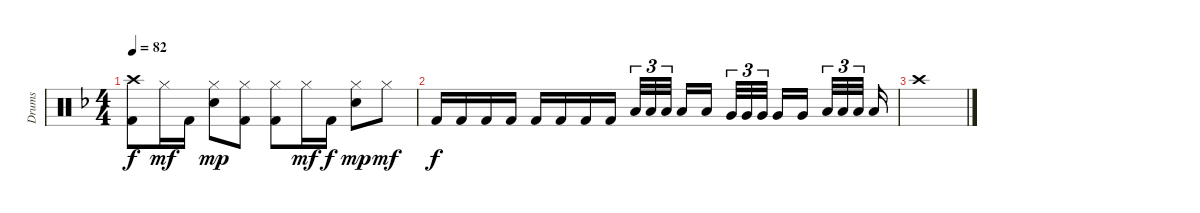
\track ("Drums" "Drums") {instrument percussion}
\staff {score}
\articulation defaults
\ts (4 4)
\tempo 82
\clef neutral
\ks dminor
("Crash high (hit)" "Kick (hit) 2").8{dy f} "Hi-Hat (closed)".16{dy mf} "Kick (hit) 2".16 ("Hi-Hat (closed)" "Electric Snare (hit)").8{dy mp} ("Hi-Hat (closed)" "Kick (hit) 2").8 ("Hi-Hat (closed)" "Kick (hit) 2").8 "Hi-Hat (closed)".16{dy mf} "Kick (hit) 2".16{dy f} ("Hi-Hat (closed)" "Electric Snare (hit)").8{dy mp} "Hi-Hat (closed)".8{dy mf} |
"Kick (hit) 2".16{dy f volume 6} "Kick (hit) 2".16{volume 16} "Kick (hit) 2".16 "Kick (hit) 2".16 "Kick (hit) 2".16 "Kick (hit) 2".16 "Kick (hit) 2".16 "Kick (hit) 2".16 "Low Tom (hit)".32{tu (3 2) balance 16} "Low Tom (hit)".32{tu (3 2)} "Low Tom (hit)".32{tu (3 2) beam splitsecondary} "Low Tom (hit)".16 "Low Tom (hit)".16{beam splitsecondary} "Very Low Tom (hit)".32{tu (3 2) balance 12} "Very Low Tom (hit)".32{tu (3 2)} "Very Low Tom (hit)".32{tu (3 2)} "Very Low Tom (hit)".16 "Very Low Tom (hit)".16{beam splitsecondary} "Low Floor Tom (hit)".32{tu (3 2) balance 8} "Low Floor Tom (hit)".32{tu (3 2)} "Low Floor Tom (hit)".32{tu (3 2) beam splitsecondary} "Low Floor Tom (hit)".16 |
"Crash high (hit)".1
